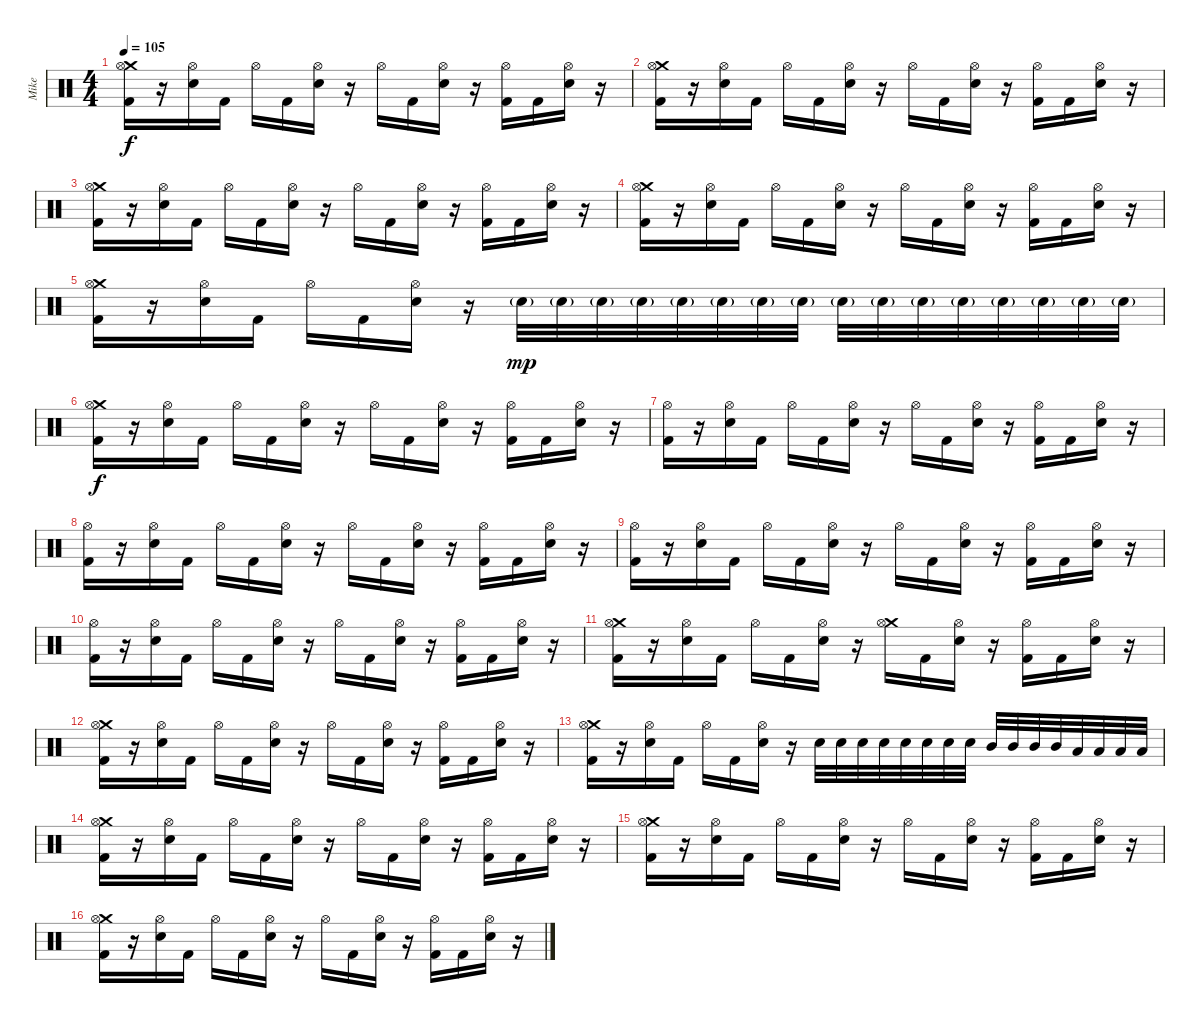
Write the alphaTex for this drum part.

\track ("Mike" "Mike") {instrument percussion}
\staff {score}
\articulation defaults
\ts (4 4)
\tempo 105
\clef neutral
\ks c
("Crash medium (hit)" "Hi-Hat (open)" "Kick (hit) 2").16{dy f} r.16 ("Hi-Hat (open)" "Electric Snare (hit)").16 "Kick (hit) 2".16 "Hi-Hat (open)".16 "Kick (hit) 2".16 ("Hi-Hat (open)" "Electric Snare (hit)").16 r.16 "Hi-Hat (open)".16 "Kick (hit) 2".16 ("Hi-Hat (open)" "Electric Snare (hit)").16 r.16 ("Hi-Hat (open)" "Kick (hit) 2").16 "Kick (hit) 2".16 ("Hi-Hat (open)" "Electric Snare (hit)").16 r.16 |
("Crash medium (hit)" "Hi-Hat (open)" "Kick (hit) 2").16 r.16 ("Hi-Hat (open)" "Electric Snare (hit)").16 "Kick (hit) 2".16 "Hi-Hat (open)".16 "Kick (hit) 2".16 ("Hi-Hat (open)" "Electric Snare (hit)").16 r.16 "Hi-Hat (open)".16 "Kick (hit) 2".16 ("Hi-Hat (open)" "Electric Snare (hit)").16 r.16 ("Hi-Hat (open)" "Kick (hit) 2").16 "Kick (hit) 2".16 ("Hi-Hat (open)" "Electric Snare (hit)").16 r.16 |
("Crash medium (hit)" "Hi-Hat (open)" "Kick (hit) 2").16 r.16 ("Hi-Hat (open)" "Electric Snare (hit)").16 "Kick (hit) 2".16 "Hi-Hat (open)".16 "Kick (hit) 2".16 ("Hi-Hat (open)" "Electric Snare (hit)").16 r.16 "Hi-Hat (open)".16 "Kick (hit) 2".16 ("Hi-Hat (open)" "Electric Snare (hit)").16 r.16 ("Hi-Hat (open)" "Kick (hit) 2").16 "Kick (hit) 2".16 ("Hi-Hat (open)" "Electric Snare (hit)").16 r.16 |
("Crash medium (hit)" "Hi-Hat (open)" "Kick (hit) 2").16 r.16 ("Hi-Hat (open)" "Electric Snare (hit)").16 "Kick (hit) 2".16 "Hi-Hat (open)".16 "Kick (hit) 2".16 ("Hi-Hat (open)" "Electric Snare (hit)").16 r.16 "Hi-Hat (open)".16 "Kick (hit) 2".16 ("Hi-Hat (open)" "Electric Snare (hit)").16 r.16 ("Hi-Hat (open)" "Kick (hit) 2").16 "Kick (hit) 2".16 ("Hi-Hat (open)" "Electric Snare (hit)").16 r.16 |
("Crash medium (hit)" "Hi-Hat (open)" "Kick (hit) 2").16 r.16 ("Hi-Hat (open)" "Electric Snare (hit)").16 "Kick (hit) 2".16 "Hi-Hat (open)".16 "Kick (hit) 2".16 ("Hi-Hat (open)" "Electric Snare (hit)").16 r.16 "Electric Snare (hit)"{g}.32{dy mp} "Electric Snare (hit)"{g}.32 "Electric Snare (hit)"{g}.32 "Electric Snare (hit)"{g}.32 "Electric Snare (hit)"{g}.32 "Electric Snare (hit)"{g}.32 "Electric Snare (hit)"{g}.32 "Electric Snare (hit)"{g}.32 "Electric Snare (hit)"{g}.32 "Electric Snare (hit)"{g}.32 "Electric Snare (hit)"{g}.32 "Electric Snare (hit)"{g}.32 "Electric Snare (hit)"{g}.32 "Electric Snare (hit)"{g}.32 "Electric Snare (hit)"{g}.32 "Electric Snare (hit)"{g}.32 |
("Crash medium (hit)" "Hi-Hat (open)" "Kick (hit) 2").16{dy f} r.16 ("Hi-Hat (open)" "Electric Snare (hit)").16 "Kick (hit) 2".16 "Hi-Hat (open)".16 "Kick (hit) 2".16 ("Hi-Hat (open)" "Electric Snare (hit)").16 r.16 "Hi-Hat (open)".16 "Kick (hit) 2".16 ("Hi-Hat (open)" "Electric Snare (hit)").16 r.16 ("Hi-Hat (open)" "Kick (hit) 2").16 "Kick (hit) 2".16 ("Hi-Hat (open)" "Electric Snare (hit)").16 r.16 |
("Hi-Hat (open)" "Kick (hit) 2").16 r.16 ("Hi-Hat (open)" "Electric Snare (hit)").16 "Kick (hit) 2".16 "Hi-Hat (open)".16 "Kick (hit) 2".16 ("Hi-Hat (open)" "Electric Snare (hit)").16 r.16 "Hi-Hat (open)".16 "Kick (hit) 2".16 ("Hi-Hat (open)" "Electric Snare (hit)").16 r.16 ("Hi-Hat (open)" "Kick (hit) 2").16 "Kick (hit) 2".16 ("Hi-Hat (open)" "Electric Snare (hit)").16 r.16 |
("Hi-Hat (open)" "Kick (hit) 2").16 r.16 ("Hi-Hat (open)" "Electric Snare (hit)").16 "Kick (hit) 2".16 "Hi-Hat (open)".16 "Kick (hit) 2".16 ("Hi-Hat (open)" "Electric Snare (hit)").16 r.16 "Hi-Hat (open)".16 "Kick (hit) 2".16 ("Hi-Hat (open)" "Electric Snare (hit)").16 r.16 ("Hi-Hat (open)" "Kick (hit) 2").16 "Kick (hit) 2".16 ("Hi-Hat (open)" "Electric Snare (hit)").16 r.16 |
("Hi-Hat (open)" "Kick (hit) 2").16 r.16 ("Hi-Hat (open)" "Electric Snare (hit)").16 "Kick (hit) 2".16 "Hi-Hat (open)".16 "Kick (hit) 2".16 ("Hi-Hat (open)" "Electric Snare (hit)").16 r.16 "Hi-Hat (open)".16 "Kick (hit) 2".16 ("Hi-Hat (open)" "Electric Snare (hit)").16 r.16 ("Hi-Hat (open)" "Kick (hit) 2").16 "Kick (hit) 2".16 ("Hi-Hat (open)" "Electric Snare (hit)").16 r.16 |
("Hi-Hat (open)" "Kick (hit) 2").16 r.16 ("Hi-Hat (open)" "Electric Snare (hit)").16 "Kick (hit) 2".16 "Hi-Hat (open)".16 "Kick (hit) 2".16 ("Hi-Hat (open)" "Electric Snare (hit)").16 r.16 "Hi-Hat (open)".16 "Kick (hit) 2".16 ("Hi-Hat (open)" "Electric Snare (hit)").16 r.16 ("Hi-Hat (open)" "Kick (hit) 2").16 "Kick (hit) 2".16 ("Hi-Hat (open)" "Electric Snare (hit)").16 r.16 |
("Crash medium (hit)" "Hi-Hat (open)" "Kick (hit) 2").16 r.16 ("Hi-Hat (open)" "Electric Snare (hit)").16 "Kick (hit) 2".16 "Hi-Hat (open)".16 "Kick (hit) 2".16 ("Hi-Hat (open)" "Electric Snare (hit)").16 r.16 ("Crash medium (hit)" "Hi-Hat (open)").16 "Kick (hit) 2".16 ("Hi-Hat (open)" "Electric Snare (hit)").16 r.16 ("Hi-Hat (open)" "Kick (hit) 2").16 "Kick (hit) 2".16 ("Hi-Hat (open)" "Electric Snare (hit)").16 r.16 |
("Crash medium (hit)" "Hi-Hat (open)" "Kick (hit) 2").16 r.16 ("Hi-Hat (open)" "Electric Snare (hit)").16 "Kick (hit) 2".16 "Hi-Hat (open)".16 "Kick (hit) 2".16 ("Hi-Hat (open)" "Electric Snare (hit)").16 r.16 "Hi-Hat (open)".16 "Kick (hit) 2".16 ("Hi-Hat (open)" "Electric Snare (hit)").16 r.16 ("Hi-Hat (open)" "Kick (hit) 2").16 "Kick (hit) 2".16 ("Hi-Hat (open)" "Electric Snare (hit)").16 r.16 |
("Crash medium (hit)" "Hi-Hat (open)" "Kick (hit) 2").16 r.16 ("Hi-Hat (open)" "Electric Snare (hit)").16 "Kick (hit) 2".16 "Hi-Hat (open)".16 "Kick (hit) 2".16 ("Hi-Hat (open)" "Electric Snare (hit)").16 r.16 "Electric Snare (hit)".32 "Electric Snare (hit)".32 "Electric Snare (hit)".32 "Electric Snare (hit)".32 "Electric Snare (hit)".32 "Electric Snare (hit)".32 "Electric Snare (hit)".32 "Electric Snare (hit)".32 "Mid Tom (hit)".32 "Mid Tom (hit)".32 "Mid Tom (hit)".32 "Mid Tom (hit)".32 "Low Tom (hit)".32 "Low Tom (hit)".32 "Low Tom (hit)".32 "Low Tom (hit)".32 |
("Crash medium (hit)" "Hi-Hat (open)" "Kick (hit) 2").16 r.16 ("Hi-Hat (open)" "Electric Snare (hit)").16 "Kick (hit) 2".16 "Hi-Hat (open)".16 "Kick (hit) 2".16 ("Hi-Hat (open)" "Electric Snare (hit)").16 r.16 "Hi-Hat (open)".16 "Kick (hit) 2".16 ("Hi-Hat (open)" "Electric Snare (hit)").16 r.16 ("Hi-Hat (open)" "Kick (hit) 2").16 "Kick (hit) 2".16 ("Hi-Hat (open)" "Electric Snare (hit)").16 r.16 |
("Crash medium (hit)" "Hi-Hat (open)" "Kick (hit) 2").16 r.16 ("Hi-Hat (open)" "Electric Snare (hit)").16 "Kick (hit) 2".16 "Hi-Hat (open)".16 "Kick (hit) 2".16 ("Hi-Hat (open)" "Electric Snare (hit)").16 r.16 "Hi-Hat (open)".16 "Kick (hit) 2".16 ("Hi-Hat (open)" "Electric Snare (hit)").16 r.16 ("Hi-Hat (open)" "Kick (hit) 2").16 "Kick (hit) 2".16 ("Hi-Hat (open)" "Electric Snare (hit)").16 r.16 |
("Crash medium (hit)" "Hi-Hat (open)" "Kick (hit) 2").16 r.16 ("Hi-Hat (open)" "Electric Snare (hit)").16 "Kick (hit) 2".16 "Hi-Hat (open)".16 "Kick (hit) 2".16 ("Hi-Hat (open)" "Electric Snare (hit)").16 r.16 "Hi-Hat (open)".16 "Kick (hit) 2".16 ("Hi-Hat (open)" "Electric Snare (hit)").16 r.16 ("Hi-Hat (open)" "Kick (hit) 2").16 "Kick (hit) 2".16 ("Hi-Hat (open)" "Electric Snare (hit)").16 r.16
